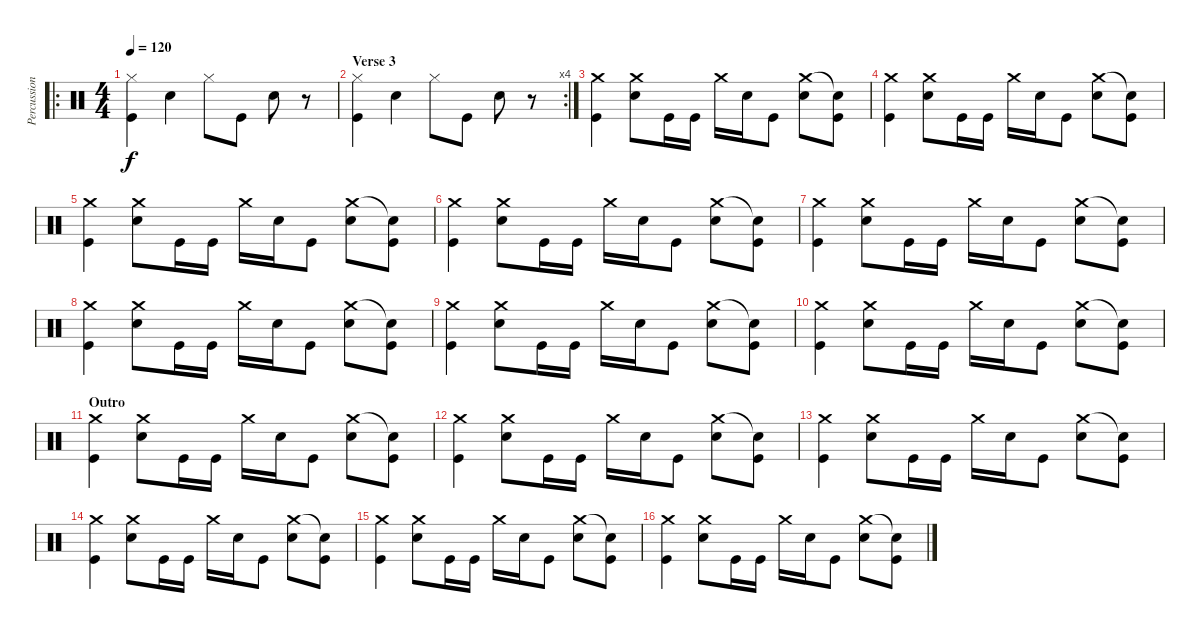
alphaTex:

\track ("Percussion" "Percussion") {instrument percussion}
\staff {score}
\articulation defaults
\ro
\ts (4 4)
\tempo 120
\clef neutral
\ks c
("Hi-Hat (closed)" "Kick (hit)").4{dy f} "Snare (hit) 2".4 "Hi-Hat (closed)".8 "Kick (hit)".8 "Snare (hit) 2".8 r.8 |
\rc 4
\section ("" "Verse 3")
("Hi-Hat (closed)" "Kick (hit)").4 "Snare (hit) 2".4 "Hi-Hat (closed)".8 "Kick (hit)".8 "Snare (hit) 2".8 r.8 |
("Crash medium (hit)" "Kick (hit)").4 ("Crash medium (hit)" "Snare (hit) 2").8 "Kick (hit)".16 "Kick (hit)".16 "Crash medium (hit)".16 "Snare (hit) 2".16 "Kick (hit)".8 ("Crash medium (hit)" "Snare (hit) 2").8 ("Snare (hit)"{t} "Kick (hit)").8 |
("Crash medium (hit)" "Kick (hit)").4 ("Crash medium (hit)" "Snare (hit) 2").8 "Kick (hit)".16 "Kick (hit)".16 "Crash medium (hit)".16 "Snare (hit) 2".16 "Kick (hit)".8 ("Crash medium (hit)" "Snare (hit) 2").8 ("Snare (hit)"{t} "Kick (hit)").8 |
("Crash medium (hit)" "Kick (hit)").4 ("Crash medium (hit)" "Snare (hit) 2").8 "Kick (hit)".16 "Kick (hit)".16 "Crash medium (hit)".16 "Snare (hit) 2".16 "Kick (hit)".8 ("Crash medium (hit)" "Snare (hit) 2").8 ("Snare (hit)"{t} "Kick (hit)").8 |
("Crash medium (hit)" "Kick (hit)").4 ("Crash medium (hit)" "Snare (hit) 2").8 "Kick (hit)".16 "Kick (hit)".16 "Crash medium (hit)".16 "Snare (hit) 2".16 "Kick (hit)".8 ("Crash medium (hit)" "Snare (hit) 2").8 ("Snare (hit)"{t} "Kick (hit)").8 |
("Crash medium (hit)" "Kick (hit)").4 ("Crash medium (hit)" "Snare (hit) 2").8 "Kick (hit)".16 "Kick (hit)".16 "Crash medium (hit)".16 "Snare (hit) 2".16 "Kick (hit)".8 ("Crash medium (hit)" "Snare (hit) 2").8 ("Snare (hit)"{t} "Kick (hit)").8 |
("Crash medium (hit)" "Kick (hit)").4 ("Crash medium (hit)" "Snare (hit) 2").8 "Kick (hit)".16 "Kick (hit)".16 "Crash medium (hit)".16 "Snare (hit) 2".16 "Kick (hit)".8 ("Crash medium (hit)" "Snare (hit) 2").8 ("Snare (hit)"{t} "Kick (hit)").8 |
\section ("" "")
("Crash medium (hit)" "Kick (hit)").4 ("Crash medium (hit)" "Snare (hit) 2").8 "Kick (hit)".16 "Kick (hit)".16 "Crash medium (hit)".16 "Snare (hit) 2".16 "Kick (hit)".8 ("Crash medium (hit)" "Snare (hit) 2").8 ("Snare (hit)"{t} "Kick (hit)").8 |
("Crash medium (hit)" "Kick (hit)").4 ("Crash medium (hit)" "Snare (hit) 2").8 "Kick (hit)".16 "Kick (hit)".16 "Crash medium (hit)".16 "Snare (hit) 2".16 "Kick (hit)".8 ("Crash medium (hit)" "Snare (hit) 2").8 ("Snare (hit)"{t} "Kick (hit)").8 |
\section ("" "Outro")
("Crash medium (hit)" "Kick (hit)").4 ("Crash medium (hit)" "Snare (hit) 2").8 "Kick (hit)".16 "Kick (hit)".16 "Crash medium (hit)".16 "Snare (hit) 2".16 "Kick (hit)".8 ("Crash medium (hit)" "Snare (hit) 2").8 ("Snare (hit)"{t} "Kick (hit)").8 |
("Crash medium (hit)" "Kick (hit)").4 ("Crash medium (hit)" "Snare (hit) 2").8 "Kick (hit)".16 "Kick (hit)".16 "Crash medium (hit)".16 "Snare (hit) 2".16 "Kick (hit)".8 ("Crash medium (hit)" "Snare (hit) 2").8 ("Snare (hit)"{t} "Kick (hit)").8 |
("Crash medium (hit)" "Kick (hit)").4 ("Crash medium (hit)" "Snare (hit) 2").8 "Kick (hit)".16 "Kick (hit)".16 "Crash medium (hit)".16 "Snare (hit) 2".16 "Kick (hit)".8 ("Crash medium (hit)" "Snare (hit) 2").8 ("Snare (hit)"{t} "Kick (hit)").8 |
("Crash medium (hit)" "Kick (hit)").4 ("Crash medium (hit)" "Snare (hit) 2").8 "Kick (hit)".16 "Kick (hit)".16 "Crash medium (hit)".16 "Snare (hit) 2".16 "Kick (hit)".8 ("Crash medium (hit)" "Snare (hit) 2").8 ("Snare (hit)"{t} "Kick (hit)").8 |
("Crash medium (hit)" "Kick (hit)").4 ("Crash medium (hit)" "Snare (hit) 2").8 "Kick (hit)".16 "Kick (hit)".16 "Crash medium (hit)".16 "Snare (hit) 2".16 "Kick (hit)".8 ("Crash medium (hit)" "Snare (hit) 2").8 ("Snare (hit)"{t} "Kick (hit)").8 |
("Crash medium (hit)" "Kick (hit)").4 ("Crash medium (hit)" "Snare (hit) 2").8 "Kick (hit)".16 "Kick (hit)".16 "Crash medium (hit)".16 "Snare (hit) 2".16 "Kick (hit)".8 ("Crash medium (hit)" "Snare (hit) 2").8 ("Snare (hit)"{t} "Kick (hit)").8
